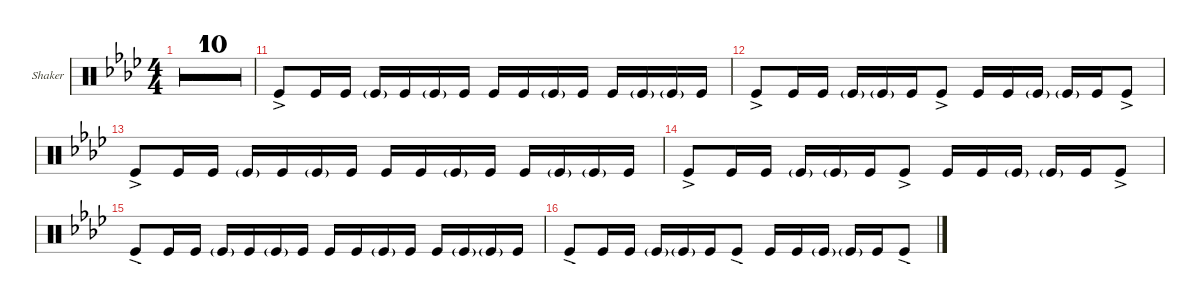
\defaultSystemsLayout 4
\hideDynamics
\bracketExtendMode groupsimilarinstruments
\firstSystemTrackNameOrientation horizontal
\otherSystemsTrackNameOrientation horizontal
\track ("Shaker" "Shaker") {multiBarRest instrument percussion}
\staff {score}
\articulation defaults
\ts (4 4)
\tempo 142
\clef neutral
\ks ab
r.1{dy ff} |
\barLineRight lightlight
r.1 |
r.1 |
r.1 |
r.1 |
r.1 |
r.1 |
r.1 |
r.1 |
\barLineRight lightlight
r.1 |
"Kick (hit)"{ac}.8 "Kick (hit)".16 "Kick (hit)".16 "Kick (hit)"{g}.16 "Kick (hit)".16 "Kick (hit)"{g}.16 "Kick (hit)".16 "Kick (hit)".16 "Kick (hit)".16 "Kick (hit)"{g}.16 "Kick (hit)".16 "Kick (hit)".16 "Kick (hit)"{g}.16 "Kick (hit)"{g}.16 "Kick (hit)".16 |
"Kick (hit)"{ac}.8 "Kick (hit)".16 "Kick (hit)".16 "Kick (hit)"{g}.16 "Kick (hit)"{g}.16 "Kick (hit)".16 "Kick (hit)"{ac}.8 "Kick (hit)".16 "Kick (hit)".16 "Kick (hit)"{g}.16 "Kick (hit)"{g}.16 "Kick (hit)".16 "Kick (hit)"{ac}.8 |
"Kick (hit)"{ac}.8 "Kick (hit)".16 "Kick (hit)".16 "Kick (hit)"{g}.16 "Kick (hit)".16 "Kick (hit)"{g}.16 "Kick (hit)".16 "Kick (hit)".16 "Kick (hit)".16 "Kick (hit)"{g}.16 "Kick (hit)".16 "Kick (hit)".16 "Kick (hit)"{g}.16 "Kick (hit)"{g}.16 "Kick (hit)".16 |
"Kick (hit)"{ac}.8 "Kick (hit)".16 "Kick (hit)".16 "Kick (hit)"{g}.16 "Kick (hit)"{g}.16 "Kick (hit)".16 "Kick (hit)"{ac}.8 "Kick (hit)".16 "Kick (hit)".16 "Kick (hit)"{g}.16 "Kick (hit)"{g}.16 "Kick (hit)".16 "Kick (hit)"{ac}.8 |
"Kick (hit)"{ac}.8 "Kick (hit)".16 "Kick (hit)".16 "Kick (hit)"{g}.16 "Kick (hit)".16 "Kick (hit)"{g}.16 "Kick (hit)".16 "Kick (hit)".16 "Kick (hit)".16 "Kick (hit)"{g}.16 "Kick (hit)".16 "Kick (hit)".16 "Kick (hit)"{g}.16 "Kick (hit)"{g}.16 "Kick (hit)".16 |
"Kick (hit)"{ac}.8 "Kick (hit)".16 "Kick (hit)".16 "Kick (hit)"{g}.16 "Kick (hit)"{g}.16 "Kick (hit)".16 "Kick (hit)"{ac}.8 "Kick (hit)".16 "Kick (hit)".16 "Kick (hit)"{g}.16 "Kick (hit)"{g}.16 "Kick (hit)".16 "Kick (hit)"{ac}.8
